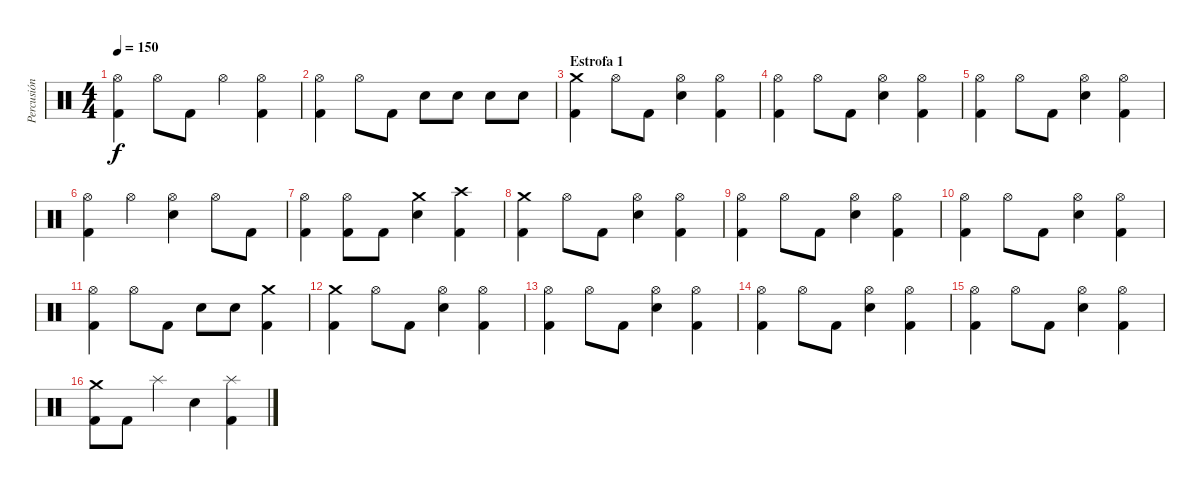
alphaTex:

\track ("Percusión" "Percusión") {instrument percussion}
\staff {score}
\articulation defaults
\ts (4 4)
\tempo 150
\clef neutral
\ks c
("Hi-Hat (open)" "Kick (hit) 2").4{dy f} "Hi-Hat (open)".8 "Kick (hit) 2".8 "Hi-Hat (open)".4 ("Hi-Hat (open)" "Kick (hit) 2").4 |
("Hi-Hat (open)" "Kick (hit) 2").4 "Hi-Hat (open)".8 "Kick (hit) 2".8 "Snare (hit) 2".8 "Snare (hit) 2".8 "Snare (hit) 2".8 "Snare (hit) 2".8 |
\section ("" "Estrofa 1")
("Crash medium (hit)" "Kick (hit) 2").4 "Hi-Hat (open)".8 "Kick (hit) 2".8 ("Hi-Hat (open)" "Snare (hit) 2").4 ("Hi-Hat (open)" "Kick (hit) 2").4 |
("Hi-Hat (open)" "Kick (hit) 2").4 "Hi-Hat (open)".8 "Kick (hit) 2".8 ("Hi-Hat (open)" "Snare (hit) 2").4 ("Hi-Hat (open)" "Kick (hit) 2").4 |
("Hi-Hat (open)" "Kick (hit) 2").4 "Hi-Hat (open)".8 "Kick (hit) 2".8 ("Hi-Hat (open)" "Snare (hit) 2").4 ("Hi-Hat (open)" "Kick (hit) 2").4 |
("Hi-Hat (open)" "Kick (hit) 2").4 "Hi-Hat (open)".4 ("Hi-Hat (open)" "Snare (hit) 2").4 "Hi-Hat (open)".8 "Kick (hit) 2".8 |
("Hi-Hat (open)" "Kick (hit) 2").4 ("Hi-Hat (open)" "Kick (hit) 2").8 "Kick (hit) 2".8 ("Crash medium (hit)" "Snare (hit) 2").4 ("Crash high (hit)" "Kick (hit) 2").4 |
("Crash medium (hit)" "Kick (hit) 2").4 "Hi-Hat (open)".8 "Kick (hit) 2".8 ("Hi-Hat (open)" "Snare (hit) 2").4 ("Hi-Hat (open)" "Kick (hit) 2").4 |
("Hi-Hat (open)" "Kick (hit) 2").4 "Hi-Hat (open)".8 "Kick (hit) 2".8 ("Hi-Hat (open)" "Snare (hit) 2").4 ("Hi-Hat (open)" "Kick (hit) 2").4 |
("Hi-Hat (open)" "Kick (hit) 2").4 "Hi-Hat (open)".8 "Kick (hit) 2".8 ("Hi-Hat (open)" "Snare (hit) 2").4 ("Hi-Hat (open)" "Kick (hit) 2").4 |
("Hi-Hat (open)" "Kick (hit) 2").4 "Hi-Hat (open)".8 "Kick (hit) 2".8 "Snare (hit) 2".8 "Snare (hit) 2".8 ("Crash medium (hit)" "Kick (hit) 2").4 |
("Crash medium (hit)" "Kick (hit) 2").4 "Hi-Hat (open)".8 "Kick (hit) 2".8 ("Hi-Hat (open)" "Snare (hit) 2").4 ("Hi-Hat (open)" "Kick (hit) 2").4 |
("Hi-Hat (open)" "Kick (hit) 2").4 "Hi-Hat (open)".8 "Kick (hit) 2".8 ("Hi-Hat (open)" "Snare (hit) 2").4 ("Hi-Hat (open)" "Kick (hit) 2").4 |
("Hi-Hat (open)" "Kick (hit) 2").4 "Hi-Hat (open)".8 "Kick (hit) 2".8 ("Hi-Hat (open)" "Snare (hit) 2").4 ("Hi-Hat (open)" "Kick (hit) 2").4 |
("Hi-Hat (open)" "Kick (hit) 2").4 "Hi-Hat (open)".8 "Kick (hit) 2".8 ("Hi-Hat (open)" "Snare (hit) 2").4 ("Hi-Hat (open)" "Kick (hit) 2").4 |
("Crash medium (hit)" "Kick (hit) 2").8 "Kick (hit) 2".8 "Splash (hit)".4 "Snare (hit) 2".4 ("Splash (hit)" "Kick (hit) 2").4
